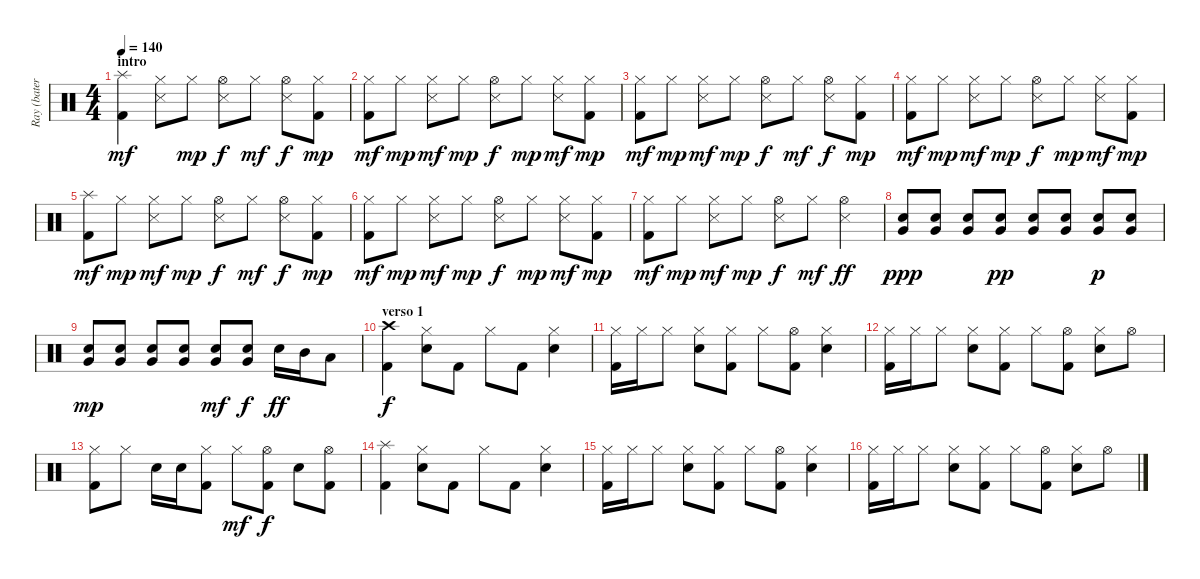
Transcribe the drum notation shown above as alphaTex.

\track ("Ray (batería)" "Ray (bater") {instrument percussion}
\staff {score}
\articulation defaults
\ts (4 4)
\section ("" "intro")
\tempo 140
\clef neutral
\ks c
("Splash (hit)" "Kick (hit) 2").4{dy mf volume 16} ("Hi-Hat (closed)" "Snare (side stick) 3").8 "Hi-Hat (closed)".8{dy mp} ("Hi-Hat (open)" "Snare (side stick) 3").8{dy f} "Hi-Hat (closed)".8{dy mf} ("Hi-Hat (open)" "Snare (side stick) 3").8{dy f} ("Hi-Hat (closed)" "Kick (hit) 2").8{dy mp} |
("Hi-Hat (closed)" "Kick (hit) 2").8{dy mf} "Hi-Hat (closed)".8{dy mp} ("Hi-Hat (closed)" "Snare (side stick) 3").8{dy mf} "Hi-Hat (closed)".8{dy mp} ("Hi-Hat (open)" "Snare (side stick) 3").8{dy f} "Hi-Hat (closed)".8{dy mp} ("Hi-Hat (closed)" "Snare (side stick) 3").8{dy mf} ("Hi-Hat (closed)" "Kick (hit) 2").8{dy mp} |
("Hi-Hat (closed)" "Kick (hit) 2").8{dy mf} "Hi-Hat (closed)".8{dy mp} ("Hi-Hat (closed)" "Snare (side stick) 3").8{dy mf} "Hi-Hat (closed)".8{dy mp} ("Hi-Hat (open)" "Snare (side stick) 3").8{dy f} "Hi-Hat (closed)".8{dy mf} ("Hi-Hat (open)" "Snare (side stick) 3").8{dy f} ("Hi-Hat (closed)" "Kick (hit) 2").8{dy mp} |
("Hi-Hat (closed)" "Kick (hit) 2").8{dy mf} "Hi-Hat (closed)".8{dy mp} ("Hi-Hat (closed)" "Snare (side stick) 3").8{dy mf} "Hi-Hat (closed)".8{dy mp} ("Hi-Hat (open)" "Snare (side stick) 3").8{dy f} "Hi-Hat (closed)".8{dy mp} ("Hi-Hat (closed)" "Snare (side stick) 3").8{dy mf} ("Hi-Hat (closed)" "Kick (hit) 2").8{dy mp} |
("Splash (hit)" "Kick (hit) 2").8{dy mf} "Hi-Hat (closed)".8{dy mp} ("Hi-Hat (closed)" "Snare (side stick) 3").8{dy mf} "Hi-Hat (closed)".8{dy mp} ("Hi-Hat (open)" "Snare (side stick) 3").8{dy f} "Hi-Hat (closed)".8{dy mf} ("Hi-Hat (open)" "Snare (side stick) 3").8{dy f} ("Hi-Hat (closed)" "Kick (hit) 2").8{dy mp} |
("Hi-Hat (closed)" "Kick (hit) 2").8{dy mf} "Hi-Hat (closed)".8{dy mp} ("Hi-Hat (closed)" "Snare (side stick) 3").8{dy mf} "Hi-Hat (closed)".8{dy mp} ("Hi-Hat (open)" "Snare (side stick) 3").8{dy f} "Hi-Hat (closed)".8{dy mp} ("Hi-Hat (closed)" "Snare (side stick) 3").8{dy mf} ("Hi-Hat (closed)" "Kick (hit) 2").8{dy mp} |
("Hi-Hat (closed)" "Kick (hit) 2").8{dy mf} "Hi-Hat (closed)".8{dy mp} ("Hi-Hat (closed)" "Snare (side stick) 3").8{dy mf} "Hi-Hat (closed)".8{dy mp} ("Hi-Hat (open)" "Snare (side stick) 3").8{dy f} "Hi-Hat (closed)".8{dy mf} ("Hi-Hat (open)" "Snare (side stick) 3").4{dy ff} |
("Snare (hit) 2" "Very Low Tom (hit)").8{dy ppp volume 15} ("Snare (hit) 2" "Very Low Tom (hit)").8 ("Snare (hit) 2" "Very Low Tom (hit)").8 ("Snare (hit) 2" "Very Low Tom (hit)").8{dy pp} ("Snare (hit) 2" "Very Low Tom (hit)").8 ("Snare (hit) 2" "Very Low Tom (hit)").8 ("Snare (hit) 2" "Very Low Tom (hit)").8{dy p} ("Snare (hit) 2" "Very Low Tom (hit)").8 |
("Snare (hit) 2" "Very Low Tom (hit)").8{dy mp} ("Snare (hit) 2" "Very Low Tom (hit)").8 ("Snare (hit) 2" "Very Low Tom (hit)").8 ("Snare (hit) 2" "Very Low Tom (hit)").8 ("Snare (hit) 2" "Very Low Tom (hit)").8{dy mf} ("Snare (hit) 2" "Very Low Tom (hit)").8{dy f} "Snare (hit) 2".16{dy ff} "Mid Tom (hit)".16 "Low Tom (hit)".8 |
\section ("" "verso 1")
("Crash high (hit)" "Kick (hit) 2").4{dy f} ("Hi-Hat (closed)" "Snare (hit) 2").8 "Kick (hit) 2".8 "Hi-Hat (closed)".8 "Kick (hit) 2".8 ("Hi-Hat (closed)" "Snare (hit) 2").4 |
("Hi-Hat (closed)" "Kick (hit) 2").16 "Hi-Hat (closed)".16 "Hi-Hat (closed)".8 ("Hi-Hat (closed)" "Snare (hit) 2").8 ("Hi-Hat (closed)" "Kick (hit) 2").8 "Hi-Hat (closed)".8 ("Hi-Hat (open)" "Kick (hit) 2").8 ("Hi-Hat (closed)" "Snare (hit) 2").4 |
("Hi-Hat (closed)" "Kick (hit) 2").16 "Hi-Hat (closed)".16 "Hi-Hat (closed)".8 ("Hi-Hat (closed)" "Snare (hit) 2").8 ("Hi-Hat (closed)" "Kick (hit) 2").8 "Hi-Hat (closed)".8 ("Hi-Hat (open)" "Kick (hit) 2").8 ("Hi-Hat (closed)" "Snare (hit) 2").8 "Hi-Hat (open)".8 |
("Hi-Hat (closed)" "Kick (hit) 2").8 "Hi-Hat (closed)".8 "Snare (hit) 2".16 "Snare (hit) 2".16 ("Hi-Hat (closed)" "Kick (hit) 2").8 "Hi-Hat (closed)".8{dy mf} ("Hi-Hat (open)" "Kick (hit) 2").8{dy f} "Snare (hit) 2".8 ("Hi-Hat (open)" "Kick (hit) 2").8 |
("Splash (hit)" "Kick (hit) 2").4 ("Hi-Hat (closed)" "Snare (hit) 2").8 "Kick (hit) 2".8 "Hi-Hat (closed)".8 "Kick (hit) 2".8 ("Hi-Hat (closed)" "Snare (hit) 2").4 |
("Hi-Hat (closed)" "Kick (hit) 2").16 "Hi-Hat (closed)".16 "Hi-Hat (closed)".8 ("Hi-Hat (closed)" "Snare (hit) 2").8 ("Hi-Hat (closed)" "Kick (hit) 2").8 "Hi-Hat (closed)".8 ("Hi-Hat (open)" "Kick (hit) 2").8 ("Hi-Hat (closed)" "Snare (hit) 2").4 |
("Hi-Hat (closed)" "Kick (hit) 2").16 "Hi-Hat (closed)".16 "Hi-Hat (closed)".8 ("Hi-Hat (closed)" "Snare (hit) 2").8 ("Hi-Hat (closed)" "Kick (hit) 2").8 "Hi-Hat (closed)".8 ("Hi-Hat (open)" "Kick (hit) 2").8 ("Hi-Hat (closed)" "Snare (hit) 2").8 "Hi-Hat (open)".8
